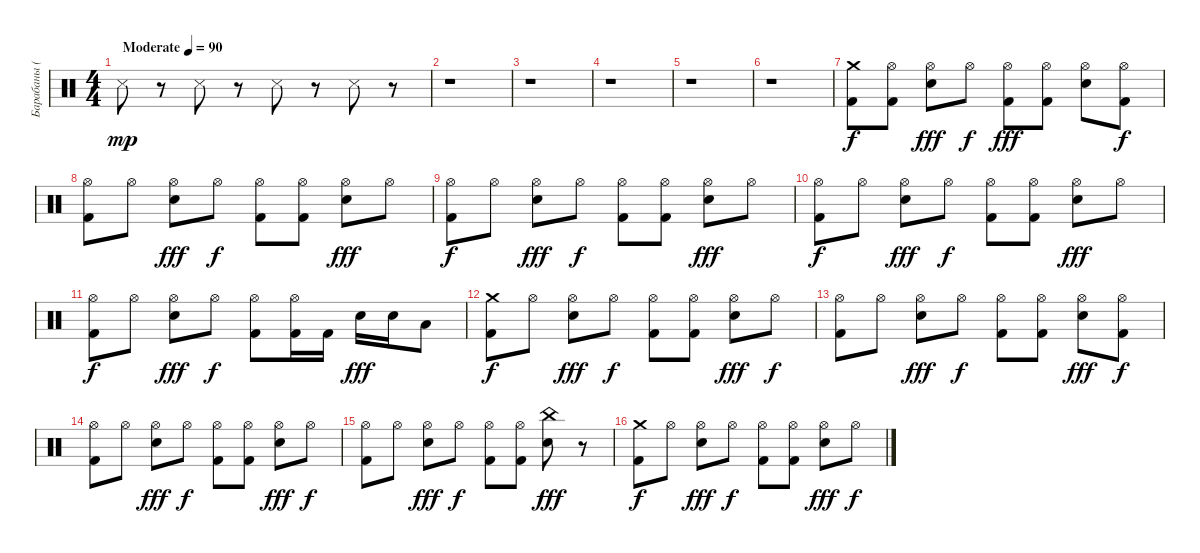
\track ("Барабаны (Илья)" "Барабаны (") {instrument percussion}
\staff {score}
\articulation defaults
\ts (4 4)
\tempo (90 "Moderate")
\clef neutral
\ks c "Snare (side stick) 3".8{dy mp}
r.8 "Snare (side stick) 3".8 r.8 "Snare (side stick) 3".8 r.8 "Snare (side stick) 3".8 r.8 |
r.1 |
r.1 |
r.1 |
r.1 |
r.1 |
("Crash medium (hit)" "Kick (hit) 2").8{dy f} ("Hi-Hat (open)" "Kick (hit) 2").8 ("Hi-Hat (open)" "Snare (hit) 2").8{dy fff} "Hi-Hat (open)".8{dy f} ("Hi-Hat (open)" "Kick (hit) 2").8{dy fff} ("Hi-Hat (open)" "Kick (hit) 2").8 ("Hi-Hat (open)" "Snare (hit) 2").8 ("Kick (hit) 2" "Hi-Hat (open)").8{dy f} |
("Kick (hit) 2" "Hi-Hat (open)").8 "Hi-Hat (open)".8 ("Snare (hit) 2" "Hi-Hat (open)").8{dy fff} "Hi-Hat (open)".8{dy f} ("Kick (hit) 2" "Hi-Hat (open)").8 ("Kick (hit) 2" "Hi-Hat (open)").8 ("Snare (hit) 2" "Hi-Hat (open)").8{dy fff} "Hi-Hat (open)".8 |
("Hi-Hat (open)" "Kick (hit) 2").8{dy f} "Hi-Hat (open)".8 ("Snare (hit) 2" "Hi-Hat (open)").8{dy fff} "Hi-Hat (open)".8{dy f} ("Hi-Hat (open)" "Kick (hit) 2").8 ("Hi-Hat (open)" "Kick (hit) 2").8 ("Snare (hit) 2" "Hi-Hat (open)").8{dy fff} "Hi-Hat (open)".8 |
("Hi-Hat (open)" "Kick (hit) 2").8{dy f} "Hi-Hat (open)".8 ("Snare (hit) 2" "Hi-Hat (open)").8{dy fff} "Hi-Hat (open)".8{dy f} ("Kick (hit) 2" "Hi-Hat (open)").8 ("Kick (hit) 2" "Hi-Hat (open)").8 ("Snare (hit) 2" "Hi-Hat (open)").8{dy fff} "Hi-Hat (open)".8 |
("Kick (hit) 2" "Hi-Hat (open)").8{dy f} "Hi-Hat (open)".8 ("Snare (hit) 2" "Hi-Hat (open)").8{dy fff} "Hi-Hat (open)".8{dy f} ("Kick (hit) 2" "Hi-Hat (open)").8 ("Hi-Hat (open)" "Kick (hit) 2").16 "Kick (hit) 2".16 "Snare (hit) 2".16{dy fff} "Snare (hit) 2".16 "Low Tom (hit)".8 |
("Kick (hit) 2" "Crash medium (hit)").8{dy f} "Hi-Hat (open)".8 ("Snare (hit) 2" "Hi-Hat (open)").8{dy fff} "Hi-Hat (open)".8{dy f} ("Kick (hit) 2" "Hi-Hat (open)").8 ("Kick (hit) 2" "Hi-Hat (open)").8 ("Hi-Hat (open)" "Snare (hit) 2").8{dy fff} "Hi-Hat (open)".8{dy f} |
("Hi-Hat (open)" "Kick (hit) 2").8 "Hi-Hat (open)".8 ("Snare (hit) 2" "Hi-Hat (open)").8{dy fff} "Hi-Hat (open)".8{dy f} ("Hi-Hat (open)" "Kick (hit) 2").8 ("Kick (hit) 2" "Hi-Hat (open)").8 ("Snare (hit) 2" "Hi-Hat (open)").8{dy fff} ("Kick (hit) 2" "Hi-Hat (open)").8{dy f} |
("Kick (hit) 2" "Hi-Hat (open)").8 "Hi-Hat (open)".8 ("Snare (hit) 2" "Hi-Hat (open)").8{dy fff} "Hi-Hat (open)".8{dy f} ("Kick (hit) 2" "Hi-Hat (open)").8 ("Hi-Hat (open)" "Kick (hit) 2").8 ("Snare (hit) 2" "Hi-Hat (open)").8{dy fff} "Hi-Hat (open)".8{dy f} |
("Kick (hit) 2" "Hi-Hat (open)").8 "Hi-Hat (open)".8 ("Hi-Hat (open)" "Snare (hit) 2").8{dy fff} "Hi-Hat (open)".8{dy f} ("Kick (hit) 2" "Hi-Hat (open)").8 ("Kick (hit) 2" "Hi-Hat (open)").8 ("China (hit)" "Snare (hit) 2").8{dy fff} r.8 |
("Kick (hit) 2" "Crash medium (hit)").8{dy f} "Hi-Hat (open)".8 ("Snare (hit) 2" "Hi-Hat (open)").8{dy fff} "Hi-Hat (open)".8{dy f} ("Kick (hit) 2" "Hi-Hat (open)").8 ("Hi-Hat (open)" "Kick (hit) 2").8 ("Snare (hit) 2" "Hi-Hat (open)").8{dy fff} "Hi-Hat (open)".8{dy f}
